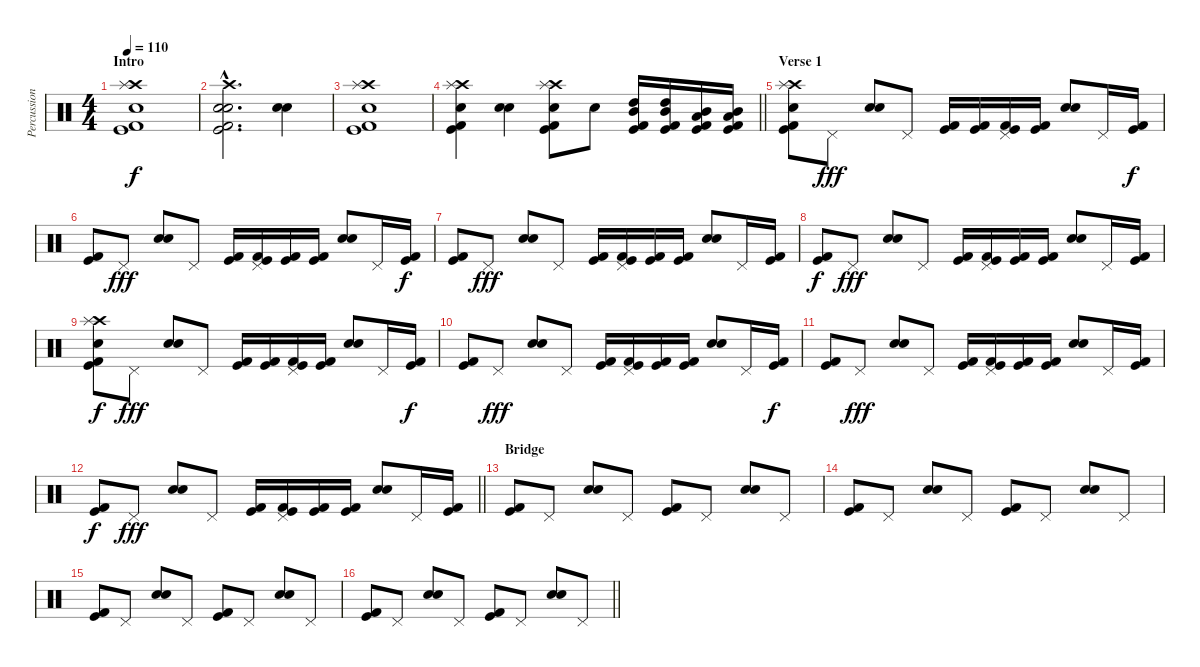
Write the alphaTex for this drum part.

\track ("Percussion" "Percussion") {instrument percussion}
\staff {score}
\articulation defaults
\ts (4 4)
\section ("" "Intro")
\tempo 110
\clef neutral
\ks c
("Crash high (hit)" "Splash (hit)" "Snare (hit) 2" "Kick (hit)" "Kick (hit) 2").1{dy f} |
("Crash high (hit)"{hac} "Electric Snare (hit)"{hac} "Snare (hit) 2"{hac} "Kick (hit)"{hac} "Kick (hit) 2"{hac}).2{d} ("Electric Snare (hit)" "Snare (hit) 2").4 |
("Crash high (hit)" "Splash (hit)" "Snare (hit) 2" "Kick (hit)" "Kick (hit) 2").1 |
\barLineRight lightlight
("Crash high (hit)" "Splash (hit)" "Snare (hit) 2" "Kick (hit)" "Kick (hit) 2").4 ("Electric Snare (hit)" "Snare (hit) 2").4 ("Crash high (hit)" "Splash (hit)" "Snare (hit) 2" "Kick (hit)" "Kick (hit) 2").8 "Snare (hit) 2".8 ("High Tom (hit)" "Mid Tom (hit)" "Kick (hit)" "Kick (hit) 2").16 ("High Tom (hit)" "Mid Tom (hit)" "Kick (hit)" "Kick (hit) 2").16 ("Mid Tom (hit)" "Low Tom (hit)" "Kick (hit)" "Kick (hit) 2").16 ("Mid Tom (hit)" "Low Tom (hit)" "Kick (hit)" "Kick (hit) 2").16 |
\section ("" "Verse 1")
("Crash high (hit)" "Splash (hit)" "Snare (hit) 2" "Kick (hit)" "Kick (hit) 2").8 "Pedal Hi-Hat (hit)".8{dy fff} ("Electric Snare (hit)" "Snare (hit) 2").8 "Pedal Hi-Hat (hit)".8 ("Kick (hit)" "Kick (hit) 2").16 ("Kick (hit)" "Kick (hit) 2").16 ("Pedal Hi-Hat (hit)" "Kick (hit)" "Kick (hit) 2").16 ("Kick (hit)" "Kick (hit) 2").16 ("Electric Snare (hit)" "Snare (hit) 2").8 "Pedal Hi-Hat (hit)".16 ("Kick (hit)" "Kick (hit) 2").16{dy f} |
("Kick (hit)" "Kick (hit) 2").8 "Pedal Hi-Hat (hit)".8{dy fff} ("Electric Snare (hit)" "Snare (hit) 2").8 "Pedal Hi-Hat (hit)".8 ("Kick (hit)" "Kick (hit) 2").16 ("Pedal Hi-Hat (hit)" "Kick (hit)" "Kick (hit) 2").16 ("Kick (hit)" "Kick (hit) 2").16 ("Kick (hit)" "Kick (hit) 2").16 ("Electric Snare (hit)" "Snare (hit) 2").8 "Pedal Hi-Hat (hit)".16 ("Kick (hit)" "Kick (hit) 2").16{dy f} |
("Kick (hit)" "Kick (hit) 2").8 "Pedal Hi-Hat (hit)".8{dy fff} ("Electric Snare (hit)" "Snare (hit) 2").8 "Pedal Hi-Hat (hit)".8 ("Kick (hit)" "Kick (hit) 2").16 ("Pedal Hi-Hat (hit)" "Kick (hit)" "Kick (hit) 2").16 ("Kick (hit)" "Kick (hit) 2").16 ("Kick (hit)" "Kick (hit) 2").16 ("Electric Snare (hit)" "Snare (hit) 2").8 "Pedal Hi-Hat (hit)".16 ("Kick (hit)" "Kick (hit) 2").16 |
("Kick (hit)" "Kick (hit) 2").8{dy f} "Pedal Hi-Hat (hit)".8{dy fff} ("Electric Snare (hit)" "Snare (hit) 2").8 "Pedal Hi-Hat (hit)".8 ("Kick (hit)" "Kick (hit) 2").16 ("Pedal Hi-Hat (hit)" "Kick (hit)" "Kick (hit) 2").16 ("Kick (hit)" "Kick (hit) 2").16 ("Kick (hit)" "Kick (hit) 2").16 ("Electric Snare (hit)" "Snare (hit) 2").8 "Pedal Hi-Hat (hit)".16 ("Kick (hit)" "Kick (hit) 2").16 |
("Crash high (hit)" "Splash (hit)" "Snare (hit) 2" "Kick (hit)" "Kick (hit) 2").8{dy f} "Pedal Hi-Hat (hit)".8{dy fff} ("Electric Snare (hit)" "Snare (hit) 2").8 "Pedal Hi-Hat (hit)".8 ("Kick (hit)" "Kick (hit) 2").16 ("Kick (hit)" "Kick (hit) 2").16 ("Pedal Hi-Hat (hit)" "Kick (hit)" "Kick (hit) 2").16 ("Kick (hit)" "Kick (hit) 2").16 ("Electric Snare (hit)" "Snare (hit) 2").8 "Pedal Hi-Hat (hit)".16 ("Kick (hit)" "Kick (hit) 2").16{dy f} |
("Kick (hit)" "Kick (hit) 2").8 "Pedal Hi-Hat (hit)".8{dy fff} ("Electric Snare (hit)" "Snare (hit) 2").8 "Pedal Hi-Hat (hit)".8 ("Kick (hit)" "Kick (hit) 2").16 ("Pedal Hi-Hat (hit)" "Kick (hit)" "Kick (hit) 2").16 ("Kick (hit)" "Kick (hit) 2").16 ("Kick (hit)" "Kick (hit) 2").16 ("Electric Snare (hit)" "Snare (hit) 2").8 "Pedal Hi-Hat (hit)".16 ("Kick (hit)" "Kick (hit) 2").16{dy f} |
("Kick (hit)" "Kick (hit) 2").8 "Pedal Hi-Hat (hit)".8{dy fff} ("Electric Snare (hit)" "Snare (hit) 2").8 "Pedal Hi-Hat (hit)".8 ("Kick (hit)" "Kick (hit) 2").16 ("Pedal Hi-Hat (hit)" "Kick (hit)" "Kick (hit) 2").16 ("Kick (hit)" "Kick (hit) 2").16 ("Kick (hit)" "Kick (hit) 2").16 ("Electric Snare (hit)" "Snare (hit) 2").8 "Pedal Hi-Hat (hit)".16 ("Kick (hit)" "Kick (hit) 2").16 |
\barLineRight lightlight
("Kick (hit)" "Kick (hit) 2").8{dy f} "Pedal Hi-Hat (hit)".8{dy fff} ("Electric Snare (hit)" "Snare (hit) 2").8 "Pedal Hi-Hat (hit)".8 ("Kick (hit)" "Kick (hit) 2").16 ("Pedal Hi-Hat (hit)" "Kick (hit)" "Kick (hit) 2").16 ("Kick (hit)" "Kick (hit) 2").16 ("Kick (hit)" "Kick (hit) 2").16 ("Electric Snare (hit)" "Snare (hit) 2").8 "Pedal Hi-Hat (hit)".16 ("Kick (hit)" "Kick (hit) 2").16 |
\section ("" "Bridge")
("Kick (hit)" "Kick (hit) 2").8 "Pedal Hi-Hat (hit)".8 ("Electric Snare (hit)" "Snare (hit) 2").8 "Pedal Hi-Hat (hit)".8 ("Kick (hit)" "Kick (hit) 2").8 "Pedal Hi-Hat (hit)".8 ("Electric Snare (hit)" "Snare (hit) 2").8 "Pedal Hi-Hat (hit)".8 |
("Kick (hit)" "Kick (hit) 2").8 "Pedal Hi-Hat (hit)".8 ("Electric Snare (hit)" "Snare (hit) 2").8 "Pedal Hi-Hat (hit)".8 ("Kick (hit)" "Kick (hit) 2").8 "Pedal Hi-Hat (hit)".8 ("Electric Snare (hit)" "Snare (hit) 2").8 "Pedal Hi-Hat (hit)".8 |
("Kick (hit)" "Kick (hit) 2").8 "Pedal Hi-Hat (hit)".8 ("Electric Snare (hit)" "Snare (hit) 2").8 "Pedal Hi-Hat (hit)".8 ("Kick (hit)" "Kick (hit) 2").8 "Pedal Hi-Hat (hit)".8 ("Electric Snare (hit)" "Snare (hit) 2").8 "Pedal Hi-Hat (hit)".8 |
\barLineRight lightlight
("Kick (hit)" "Kick (hit) 2").8 "Pedal Hi-Hat (hit)".8 ("Electric Snare (hit)" "Snare (hit) 2").8 "Pedal Hi-Hat (hit)".8 ("Kick (hit)" "Kick (hit) 2").8 "Pedal Hi-Hat (hit)".8 ("Electric Snare (hit)" "Snare (hit) 2").8 "Pedal Hi-Hat (hit)".8
